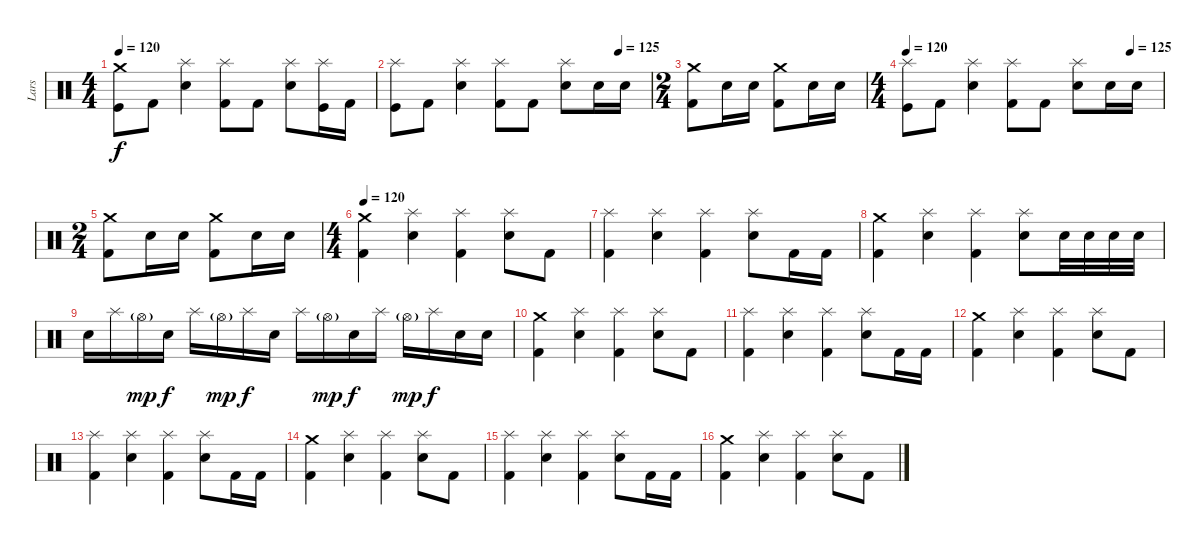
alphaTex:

\track ("Lars" "Lars") {instrument percussion}
\staff {score}
\articulation defaults
\ts (4 4)
\tempo 120
\clef neutral
\ks c
("Crash medium (hit)" "Kick (hit)").8{dy f} "Kick (hit) 2".8 ("Splash (hit)" "Snare (hit) 2").4 ("Splash (hit)" "Kick (hit) 2").8 "Kick (hit) 2".8 ("Splash (hit)" "Snare (hit) 2").8 ("Splash (hit)" "Kick (hit)").16 "Kick (hit) 2".16 |
\tempo (125 0.875)
("Splash (hit)" "Kick (hit)").8 "Kick (hit) 2".8 ("Splash (hit)" "Snare (hit) 2").4 ("Splash (hit)" "Kick (hit) 2").8 "Kick (hit) 2".8 ("Splash (hit)" "Snare (hit) 2").8 "Snare (hit) 2".16 "Snare (hit) 2".16 |
\ts (2 4)
("Crash medium (hit)" "Kick (hit) 2").8 "Snare (hit) 2".16 "Snare (hit) 2".16 ("Crash medium (hit)" "Kick (hit) 2").8 "Snare (hit) 2".16 "Snare (hit) 2".16 |
\ts (4 4)
\tempo 120
\tempo (125 0.875)
("Splash (hit)" "Kick (hit)").8 "Kick (hit) 2".8 ("Splash (hit)" "Snare (hit) 2").4 ("Splash (hit)" "Kick (hit) 2").8 "Kick (hit) 2".8 ("Splash (hit)" "Snare (hit) 2").8 "Snare (hit) 2".16 "Snare (hit) 2".16 |
\ts (2 4)
("Crash medium (hit)" "Kick (hit) 2").8 "Snare (hit) 2".16 "Snare (hit) 2".16 ("Crash medium (hit)" "Kick (hit) 2").8 "Snare (hit) 2".16 "Snare (hit) 2".16 |
\ts (4 4)
\tempo 120
("Crash medium (hit)" "Kick (hit) 2").4 ("Splash (hit)" "Snare (hit) 2").4 ("Splash (hit)" "Kick (hit) 2").4 ("Splash (hit)" "Snare (hit) 2").8 "Kick (hit) 2".8 |
("Splash (hit)" "Kick (hit) 2").4 ("Splash (hit)" "Snare (hit) 2").4 ("Splash (hit)" "Kick (hit) 2").4 ("Splash (hit)" "Snare (hit) 2").8 "Kick (hit) 2".16 "Kick (hit) 2".16 |
("Crash medium (hit)" "Kick (hit) 2").4 ("Splash (hit)" "Snare (hit) 2").4 ("Splash (hit)" "Kick (hit) 2").4 ("Splash (hit)" "Snare (hit) 2").8 "Snare (hit) 2".32 "Snare (hit) 2".32 "Snare (hit) 2".32 "Snare (hit) 2".32 |
"Snare (hit) 2".16 "Splash (hit)".16 "Hi-Hat (open)"{g}.16{dy mp} "Snare (hit) 2".16{dy f} "Splash (hit)".16 "Hi-Hat (open)"{g}.16{dy mp} "Splash (hit)".16{dy f} "Snare (hit) 2".16 "Splash (hit)".16 "Hi-Hat (open)"{g}.16{dy mp} "Snare (hit) 2".16{dy f} "Splash (hit)".16 "Hi-Hat (open)"{g}.16{dy mp} "Splash (hit)".16{dy f} "Snare (hit) 2".16 "Snare (hit) 2".16 |
("Crash medium (hit)" "Kick (hit) 2").4 ("Splash (hit)" "Snare (hit) 2").4 ("Splash (hit)" "Kick (hit) 2").4 ("Splash (hit)" "Snare (hit) 2").8 "Kick (hit) 2".8 |
("Splash (hit)" "Kick (hit) 2").4 ("Splash (hit)" "Snare (hit) 2").4 ("Splash (hit)" "Kick (hit) 2").4 ("Splash (hit)" "Snare (hit) 2").8 "Kick (hit) 2".16 "Kick (hit) 2".16 |
("Crash medium (hit)" "Kick (hit) 2").4 ("Splash (hit)" "Snare (hit) 2").4 ("Splash (hit)" "Kick (hit) 2").4 ("Splash (hit)" "Snare (hit) 2").8 "Kick (hit) 2".8 |
("Splash (hit)" "Kick (hit) 2").4 ("Splash (hit)" "Snare (hit) 2").4 ("Splash (hit)" "Kick (hit) 2").4 ("Splash (hit)" "Snare (hit) 2").8 "Kick (hit) 2".16 "Kick (hit) 2".16 |
("Crash medium (hit)" "Kick (hit) 2").4 ("Splash (hit)" "Snare (hit) 2").4 ("Splash (hit)" "Kick (hit) 2").4 ("Splash (hit)" "Snare (hit) 2").8 "Kick (hit) 2".8 |
("Splash (hit)" "Kick (hit) 2").4 ("Splash (hit)" "Snare (hit) 2").4 ("Splash (hit)" "Kick (hit) 2").4 ("Splash (hit)" "Snare (hit) 2").8 "Kick (hit) 2".16 "Kick (hit) 2".16 |
("Crash medium (hit)" "Kick (hit) 2").4 ("Splash (hit)" "Snare (hit) 2").4 ("Splash (hit)" "Kick (hit) 2").4 ("Splash (hit)" "Snare (hit) 2").8 "Kick (hit) 2".8
